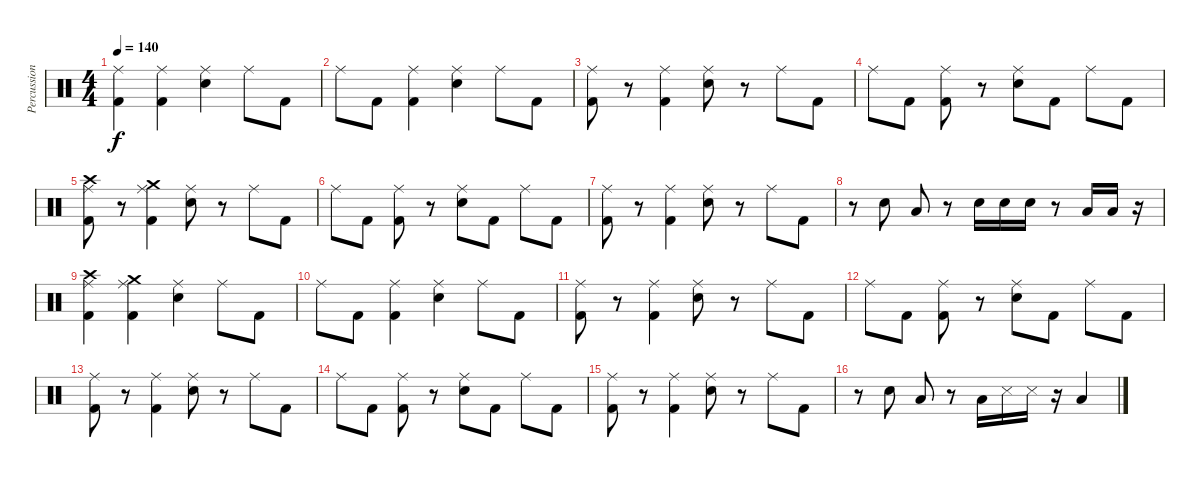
\track ("Percussion" "Percussion") {instrument percussion}
\staff {score}
\articulation defaults
\ts (4 4)
\tempo 140
\clef neutral
\ks c
("Kick (hit) 2" "Ride (middle)").4{dy f} ("Kick (hit) 2" "Ride (middle)").4 ("Snare (hit) 2" "Ride (middle)").4 "Ride (middle)".8 "Kick (hit) 2".8 |
"Ride (middle)".8 "Kick (hit) 2".8 ("Kick (hit) 2" "Ride (middle)").4 ("Snare (hit) 2" "Ride (middle)").4 "Ride (middle)".8 "Kick (hit) 2".8 |
("Kick (hit) 2" "Ride (middle)").8 r.8 ("Kick (hit) 2" "Ride (middle)").4 ("Snare (hit) 2" "Ride (middle)").8 r.8 "Ride (middle)".8 "Kick (hit) 2".8 |
"Ride (middle)".8 "Kick (hit) 2".8 ("Kick (hit) 2" "Ride (middle)").8 r.8 ("Snare (hit) 2" "Ride (middle)").8 "Kick (hit) 2".8 "Ride (middle)".8 "Kick (hit) 2".8 |
("Kick (hit) 2" "Ride (middle)" "Crash high (hit)").8 r.8 ("Kick (hit) 2" "Ride (middle)" "Crash medium (hit)").4 ("Snare (hit) 2" "Ride (middle)").8 r.8 "Ride (middle)".8 "Kick (hit) 2".8 |
"Ride (middle)".8 "Kick (hit) 2".8 ("Kick (hit) 2" "Ride (middle)").8 r.8 ("Snare (hit) 2" "Ride (middle)").8 "Kick (hit) 2".8 "Ride (middle)".8 "Kick (hit) 2".8 |
("Kick (hit) 2" "Ride (middle)").8 r.8 ("Kick (hit) 2" "Ride (middle)").4 ("Snare (hit) 2" "Ride (middle)").8 r.8 "Ride (middle)".8 "Kick (hit) 2".8 |
r.8 "Snare (hit) 2".8 "Low Floor Tom (hit)".8 r.8 "Snare (hit) 2".16 "Snare (hit) 2".16 "Snare (hit) 2".16 r.8 "Low Floor Tom (hit)".16 "Low Floor Tom (hit)".16 r.16 |
("Kick (hit) 2" "Ride (middle)" "Crash high (hit)").4 ("Kick (hit) 2" "Ride (middle)" "Crash medium (hit)").4 ("Snare (hit) 2" "Ride (middle)").4 "Ride (middle)".8 "Kick (hit) 2".8 |
"Ride (middle)".8 "Kick (hit) 2".8 ("Kick (hit) 2" "Ride (middle)").4 ("Snare (hit) 2" "Ride (middle)").4 "Ride (middle)".8 "Kick (hit) 2".8 |
("Kick (hit) 2" "Ride (middle)").8 r.8 ("Kick (hit) 2" "Ride (middle)").4 ("Snare (hit) 2" "Ride (middle)").8 r.8 "Ride (middle)".8 "Kick (hit) 2".8 |
"Ride (middle)".8 "Kick (hit) 2".8 ("Kick (hit) 2" "Ride (middle)").8 r.8 ("Snare (hit) 2" "Ride (middle)").8 "Kick (hit) 2".8 "Ride (middle)".8 "Kick (hit) 2".8 |
("Kick (hit) 2" "Ride (middle)").8 r.8 ("Kick (hit) 2" "Ride (middle)").4 ("Snare (hit) 2" "Ride (middle)").8 r.8 "Ride (middle)".8 "Kick (hit) 2".8 |
"Ride (middle)".8 "Kick (hit) 2".8 ("Kick (hit) 2" "Ride (middle)").8 r.8 ("Snare (hit) 2" "Ride (middle)").8 "Kick (hit) 2".8 "Ride (middle)".8 "Kick (hit) 2".8 |
("Kick (hit) 2" "Ride (middle)").8 r.8 ("Kick (hit) 2" "Ride (middle)").4 ("Snare (hit) 2" "Ride (middle)").8 r.8 "Ride (middle)".8 "Kick (hit) 2".8 |
r.8 "Snare (hit) 2".8 "Low Floor Tom (hit)".8 r.8 "Low Tom (hit)".16 "Snare (side stick) 3".16 "Snare (side stick) 3".16 r.16 "Low Floor Tom (hit)".4
